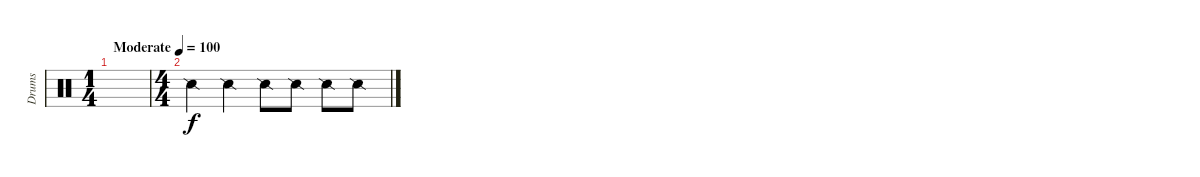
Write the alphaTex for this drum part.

\track ("Drums" "Drums") {instrument percussion}
\staff {score}
\articulation defaults
\ts (1 4)
\tempo (100 "Moderate")
\clef neutral
\ks c
|
\ts (4 4)
"Snare (side stick) 2".4 "Snare (side stick) 2".4 "Snare (side stick) 2".8 "Snare (side stick) 2".8 "Snare (side stick) 2".8 "Snare (side stick) 2".8
